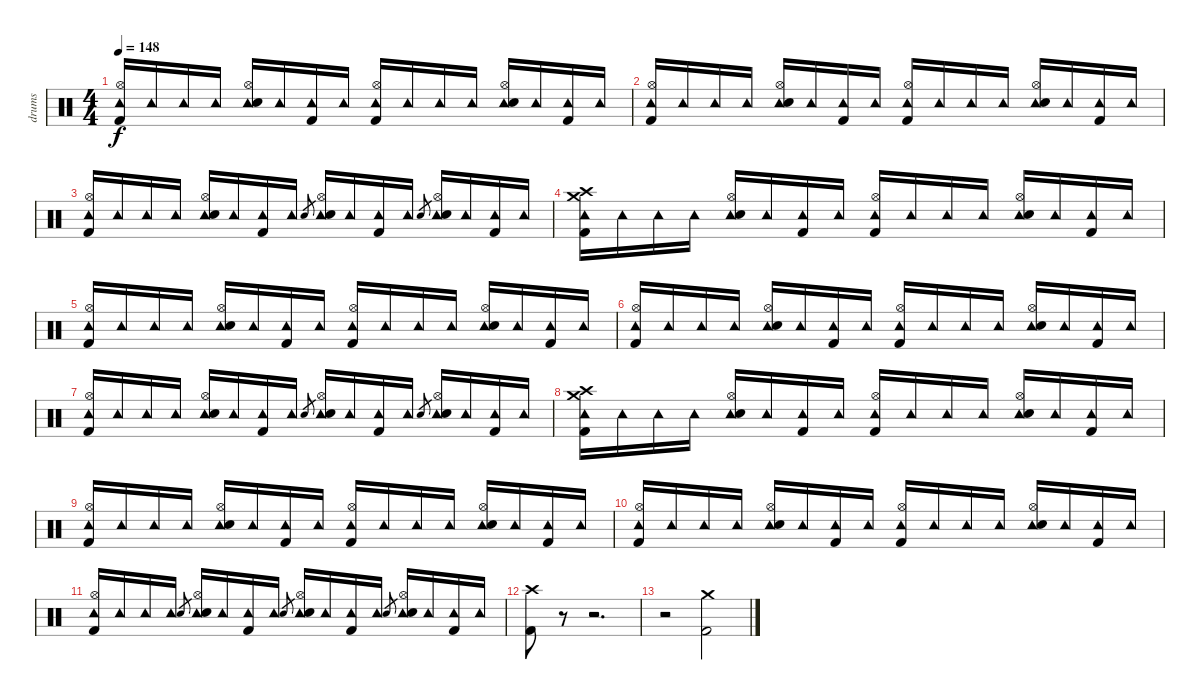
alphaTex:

\track ("drums" "drums") {instrument percussion}
\staff {score}
\articulation defaults
\ts (4 4)
\tempo 148
\clef neutral
\ks c
("Tambourine (hit)" "Hi-Hat (open)" "Kick (hit) 2").16{dy f} "Tambourine (hit)".16 "Tambourine (hit)".16 "Tambourine (hit)".16 ("Tambourine (hit)" "Hi-Hat (open)" "Electric Snare (hit)").16 "Tambourine (hit)".16 ("Tambourine (hit)" "Kick (hit) 2").16 "Tambourine (hit)".16 ("Tambourine (hit)" "Hi-Hat (open)" "Kick (hit) 2").16 "Tambourine (hit)".16 "Tambourine (hit)".16 "Tambourine (hit)".16 ("Tambourine (hit)" "Hi-Hat (open)" "Electric Snare (hit)").16 "Tambourine (hit)".16 ("Tambourine (hit)" "Kick (hit) 2").16 "Tambourine (hit)".16 |
("Tambourine (hit)" "Hi-Hat (open)" "Kick (hit) 2").16 "Tambourine (hit)".16 "Tambourine (hit)".16 "Tambourine (hit)".16 ("Tambourine (hit)" "Hi-Hat (open)" "Electric Snare (hit)").16 "Tambourine (hit)".16 ("Tambourine (hit)" "Kick (hit) 2").16 "Tambourine (hit)".16 ("Tambourine (hit)" "Hi-Hat (open)" "Kick (hit) 2").16 "Tambourine (hit)".16 "Tambourine (hit)".16 "Tambourine (hit)".16 ("Tambourine (hit)" "Hi-Hat (open)" "Electric Snare (hit)").16 "Tambourine (hit)".16 ("Tambourine (hit)" "Kick (hit) 2").16 "Tambourine (hit)".16 |
("Tambourine (hit)" "Hi-Hat (open)" "Kick (hit) 2").16 "Tambourine (hit)".16 "Tambourine (hit)".16 "Tambourine (hit)".16 ("Tambourine (hit)" "Hi-Hat (open)" "Electric Snare (hit)").16 "Tambourine (hit)".16 ("Tambourine (hit)" "Kick (hit) 2").16 "Tambourine (hit)".16 "Electric Snare (hit)".8{gr} ("Tambourine (hit)" "Hi-Hat (open)" "Electric Snare (hit)").16 "Tambourine (hit)".16 ("Tambourine (hit)" "Kick (hit) 2").16 "Tambourine (hit)".16 "Electric Snare (hit)".8{gr} ("Tambourine (hit)" "Hi-Hat (open)" "Electric Snare (hit)").16 "Tambourine (hit)".16 ("Tambourine (hit)" "Kick (hit) 2").16 "Tambourine (hit)".16 |
("Tambourine (hit)" "Crash high (hit)" "Crash medium (hit)" "Kick (hit) 2").16 "Tambourine (hit)".16 "Tambourine (hit)".16 "Tambourine (hit)".16 ("Tambourine (hit)" "Hi-Hat (open)" "Electric Snare (hit)").16 "Tambourine (hit)".16 ("Tambourine (hit)" "Kick (hit) 2").16 "Tambourine (hit)".16 ("Tambourine (hit)" "Hi-Hat (open)" "Kick (hit) 2").16 "Tambourine (hit)".16 "Tambourine (hit)".16 "Tambourine (hit)".16 ("Tambourine (hit)" "Hi-Hat (open)" "Electric Snare (hit)").16 "Tambourine (hit)".16 ("Tambourine (hit)" "Kick (hit) 2").16 "Tambourine (hit)".16 |
("Tambourine (hit)" "Hi-Hat (open)" "Kick (hit) 2").16 "Tambourine (hit)".16 "Tambourine (hit)".16 "Tambourine (hit)".16 ("Tambourine (hit)" "Hi-Hat (open)" "Electric Snare (hit)").16 "Tambourine (hit)".16 ("Tambourine (hit)" "Kick (hit) 2").16 "Tambourine (hit)".16 ("Tambourine (hit)" "Hi-Hat (open)" "Kick (hit) 2").16 "Tambourine (hit)".16 "Tambourine (hit)".16 "Tambourine (hit)".16 ("Tambourine (hit)" "Hi-Hat (open)" "Electric Snare (hit)").16 "Tambourine (hit)".16 ("Tambourine (hit)" "Kick (hit) 2").16 "Tambourine (hit)".16 |
("Tambourine (hit)" "Hi-Hat (open)" "Kick (hit) 2").16 "Tambourine (hit)".16 "Tambourine (hit)".16 "Tambourine (hit)".16 ("Tambourine (hit)" "Hi-Hat (open)" "Electric Snare (hit)").16 "Tambourine (hit)".16 ("Tambourine (hit)" "Kick (hit) 2").16 "Tambourine (hit)".16 ("Tambourine (hit)" "Hi-Hat (open)" "Kick (hit) 2").16 "Tambourine (hit)".16 "Tambourine (hit)".16 "Tambourine (hit)".16 ("Tambourine (hit)" "Hi-Hat (open)" "Electric Snare (hit)").16 "Tambourine (hit)".16 ("Tambourine (hit)" "Kick (hit) 2").16 "Tambourine (hit)".16 |
("Tambourine (hit)" "Hi-Hat (open)" "Kick (hit) 2").16 "Tambourine (hit)".16 "Tambourine (hit)".16 "Tambourine (hit)".16 ("Tambourine (hit)" "Hi-Hat (open)" "Electric Snare (hit)").16 "Tambourine (hit)".16 ("Tambourine (hit)" "Kick (hit) 2").16 "Tambourine (hit)".16 "Electric Snare (hit)".8{gr} ("Tambourine (hit)" "Hi-Hat (open)" "Electric Snare (hit)").16 "Tambourine (hit)".16 ("Tambourine (hit)" "Kick (hit) 2").16 "Tambourine (hit)".16 "Electric Snare (hit)".8{gr} ("Tambourine (hit)" "Hi-Hat (open)" "Electric Snare (hit)").16 "Tambourine (hit)".16 ("Tambourine (hit)" "Kick (hit) 2").16 "Tambourine (hit)".16 |
("Tambourine (hit)" "Crash high (hit)" "Crash medium (hit)" "Kick (hit) 2").16 "Tambourine (hit)".16 "Tambourine (hit)".16 "Tambourine (hit)".16 ("Tambourine (hit)" "Hi-Hat (open)" "Electric Snare (hit)").16 "Tambourine (hit)".16 ("Tambourine (hit)" "Kick (hit) 2").16 "Tambourine (hit)".16 ("Tambourine (hit)" "Hi-Hat (open)" "Kick (hit) 2").16 "Tambourine (hit)".16 "Tambourine (hit)".16 "Tambourine (hit)".16 ("Tambourine (hit)" "Hi-Hat (open)" "Electric Snare (hit)").16 "Tambourine (hit)".16 ("Tambourine (hit)" "Kick (hit) 2").16 "Tambourine (hit)".16 |
("Tambourine (hit)" "Hi-Hat (open)" "Kick (hit) 2").16 "Tambourine (hit)".16 "Tambourine (hit)".16 "Tambourine (hit)".16 ("Tambourine (hit)" "Hi-Hat (open)" "Electric Snare (hit)").16 "Tambourine (hit)".16 ("Tambourine (hit)" "Kick (hit) 2").16 "Tambourine (hit)".16 ("Tambourine (hit)" "Hi-Hat (open)" "Kick (hit) 2").16 "Tambourine (hit)".16 "Tambourine (hit)".16 "Tambourine (hit)".16 ("Tambourine (hit)" "Hi-Hat (open)" "Electric Snare (hit)").16 "Tambourine (hit)".16 ("Tambourine (hit)" "Kick (hit) 2").16 "Tambourine (hit)".16 |
("Tambourine (hit)" "Hi-Hat (open)" "Kick (hit) 2").16 "Tambourine (hit)".16 "Tambourine (hit)".16 "Tambourine (hit)".16 ("Tambourine (hit)" "Hi-Hat (open)" "Electric Snare (hit)").16 "Tambourine (hit)".16 ("Tambourine (hit)" "Kick (hit) 2").16 "Tambourine (hit)".16 ("Tambourine (hit)" "Hi-Hat (open)" "Kick (hit) 2").16 "Tambourine (hit)".16 "Tambourine (hit)".16 "Tambourine (hit)".16 ("Tambourine (hit)" "Hi-Hat (open)" "Electric Snare (hit)").16 "Tambourine (hit)".16 ("Tambourine (hit)" "Kick (hit) 2").16 "Tambourine (hit)".16 |
("Tambourine (hit)" "Hi-Hat (open)" "Kick (hit) 2").16 "Tambourine (hit)".16 "Tambourine (hit)".16 "Tambourine (hit)".16 "Electric Snare (hit)".8{gr} ("Tambourine (hit)" "Hi-Hat (open)" "Electric Snare (hit)").16 "Tambourine (hit)".16 ("Tambourine (hit)" "Kick (hit) 2").16 "Tambourine (hit)".16 "Electric Snare (hit)".8{gr} ("Tambourine (hit)" "Hi-Hat (open)" "Electric Snare (hit)").16 "Tambourine (hit)".16 ("Tambourine (hit)" "Kick (hit) 2").16 "Tambourine (hit)".16 "Electric Snare (hit)".8{gr} ("Tambourine (hit)" "Hi-Hat (open)" "Electric Snare (hit)").16 "Tambourine (hit)".16 ("Tambourine (hit)" "Kick (hit) 2").16 "Tambourine (hit)".16 |
("Crash high (hit)" "Kick (hit) 2").8 r.8 r.2{d} |
r.2 ("Crash medium (hit)" "Kick (hit) 2").2
